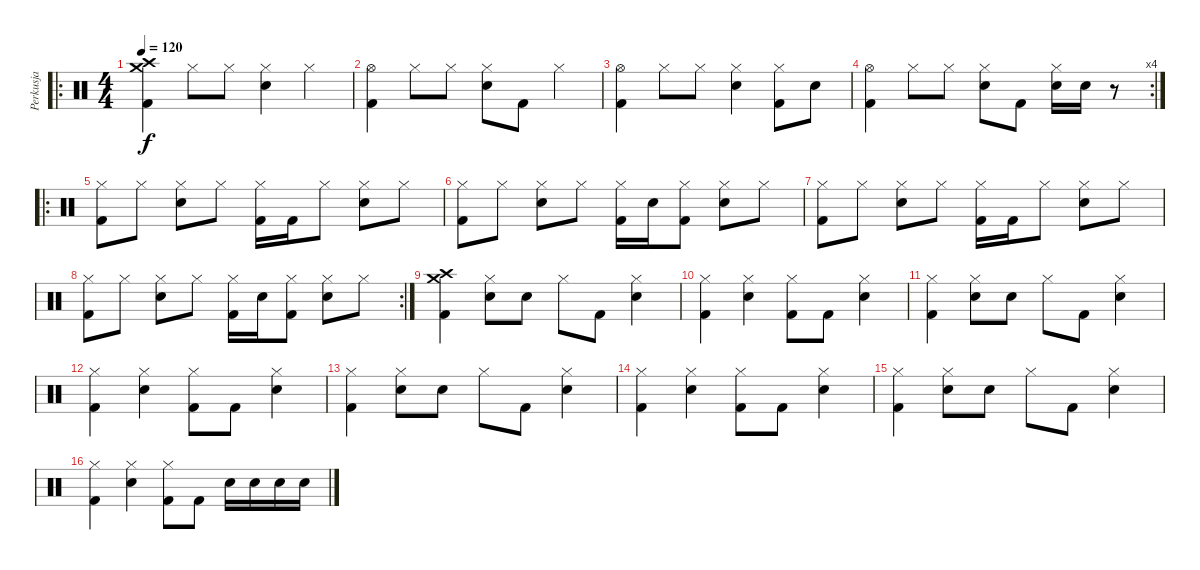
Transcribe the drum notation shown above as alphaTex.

\track ("Perkusja" "Perkusja") {instrument percussion}
\staff {score}
\articulation defaults
\ro
\ts (4 4)
\tempo 120
\clef neutral
\ks c
("Crash high (hit)" "Crash medium (hit)" "Kick (hit) 2").4{dy f} "Hi-Hat (closed)".8 "Hi-Hat (closed)".8 ("Hi-Hat (closed)" "Snare (hit) 2").4 "Hi-Hat (closed)".4 |
("Hi-Hat (open)" "Kick (hit) 2").4 "Hi-Hat (closed)".8 "Hi-Hat (closed)".8 ("Hi-Hat (closed)" "Snare (hit) 2").8 "Kick (hit) 2".8 "Hi-Hat (closed)".4 |
("Hi-Hat (open)" "Kick (hit) 2").4 "Hi-Hat (closed)".8 "Hi-Hat (closed)".8 ("Hi-Hat (closed)" "Snare (hit) 2").4 ("Hi-Hat (closed)" "Kick (hit) 2").8 "Snare (hit) 2".8 |
\rc 4
("Hi-Hat (open)" "Kick (hit) 2").4 "Hi-Hat (closed)".8 "Hi-Hat (closed)".8 ("Hi-Hat (closed)" "Snare (hit) 2").8 "Kick (hit) 2".8 ("Hi-Hat (closed)" "Snare (hit) 2").16 "Snare (hit) 2".16 r.8 |
\ro
("Hi-Hat (closed)" "Kick (hit) 2").8 "Hi-Hat (closed)".8 ("Hi-Hat (closed)" "Snare (hit) 2").8 "Hi-Hat (closed)".8 ("Hi-Hat (closed)" "Kick (hit) 2").16 "Kick (hit) 2".16 "Hi-Hat (closed)".8 ("Hi-Hat (closed)" "Snare (hit) 2").8 "Hi-Hat (closed)".8 |
("Hi-Hat (closed)" "Kick (hit) 2").8 "Hi-Hat (closed)".8 ("Hi-Hat (closed)" "Snare (hit) 2").8 "Hi-Hat (closed)".8 ("Hi-Hat (closed)" "Kick (hit) 2").16 "Snare (hit) 2".16 ("Hi-Hat (closed)" "Kick (hit) 2").8 ("Hi-Hat (closed)" "Snare (hit) 2").8 "Hi-Hat (closed)".8 |
("Hi-Hat (closed)" "Kick (hit) 2").8 "Hi-Hat (closed)".8 ("Hi-Hat (closed)" "Snare (hit) 2").8 "Hi-Hat (closed)".8 ("Hi-Hat (closed)" "Kick (hit) 2").16 "Kick (hit) 2".16 "Hi-Hat (closed)".8 ("Hi-Hat (closed)" "Snare (hit) 2").8 "Hi-Hat (closed)".8 |
\rc 2
("Hi-Hat (closed)" "Kick (hit) 2").8 "Hi-Hat (closed)".8 ("Hi-Hat (closed)" "Snare (hit) 2").8 "Hi-Hat (closed)".8 ("Hi-Hat (closed)" "Kick (hit) 2").16 "Snare (hit) 2".16 ("Hi-Hat (closed)" "Kick (hit) 2").8 ("Hi-Hat (closed)" "Snare (hit) 2").8 "Hi-Hat (closed)".8 |
("Crash high (hit)" "Crash medium (hit)" "Kick (hit) 2").4 ("Hi-Hat (closed)" "Snare (hit) 2").8 "Snare (hit) 2".8 "Hi-Hat (closed)".8 "Kick (hit) 2".8 ("Hi-Hat (closed)" "Snare (hit) 2").4 |
("Hi-Hat (closed)" "Kick (hit) 2").4 ("Hi-Hat (closed)" "Snare (hit) 2").4 ("Hi-Hat (closed)" "Kick (hit) 2").8 "Kick (hit) 2".8 ("Hi-Hat (closed)" "Snare (hit) 2").4 |
("Hi-Hat (closed)" "Kick (hit) 2").4 ("Hi-Hat (closed)" "Snare (hit) 2").8 "Snare (hit) 2".8 "Hi-Hat (closed)".8 "Kick (hit) 2".8 ("Hi-Hat (closed)" "Snare (hit) 2").4 |
("Hi-Hat (closed)" "Kick (hit) 2").4 ("Hi-Hat (closed)" "Snare (hit) 2").4 ("Hi-Hat (closed)" "Kick (hit) 2").8 "Kick (hit) 2".8 ("Hi-Hat (closed)" "Snare (hit) 2").4 |
("Hi-Hat (closed)" "Kick (hit) 2").4 ("Hi-Hat (closed)" "Snare (hit) 2").8 "Snare (hit) 2".8 "Hi-Hat (closed)".8 "Kick (hit) 2".8 ("Hi-Hat (closed)" "Snare (hit) 2").4 |
("Hi-Hat (closed)" "Kick (hit) 2").4 ("Hi-Hat (closed)" "Snare (hit) 2").4 ("Hi-Hat (closed)" "Kick (hit) 2").8 "Kick (hit) 2".8 ("Hi-Hat (closed)" "Snare (hit) 2").4 |
("Hi-Hat (closed)" "Kick (hit) 2").4 ("Hi-Hat (closed)" "Snare (hit) 2").8 "Snare (hit) 2".8 "Hi-Hat (closed)".8 "Kick (hit) 2".8 ("Hi-Hat (closed)" "Snare (hit) 2").4 |
("Hi-Hat (closed)" "Kick (hit) 2").4 ("Hi-Hat (closed)" "Snare (hit) 2").4 ("Hi-Hat (closed)" "Kick (hit) 2").8 "Kick (hit) 2".8 "Snare (hit) 2".16 "Snare (hit) 2".16 "Snare (hit) 2".16 "Snare (hit) 2".16
